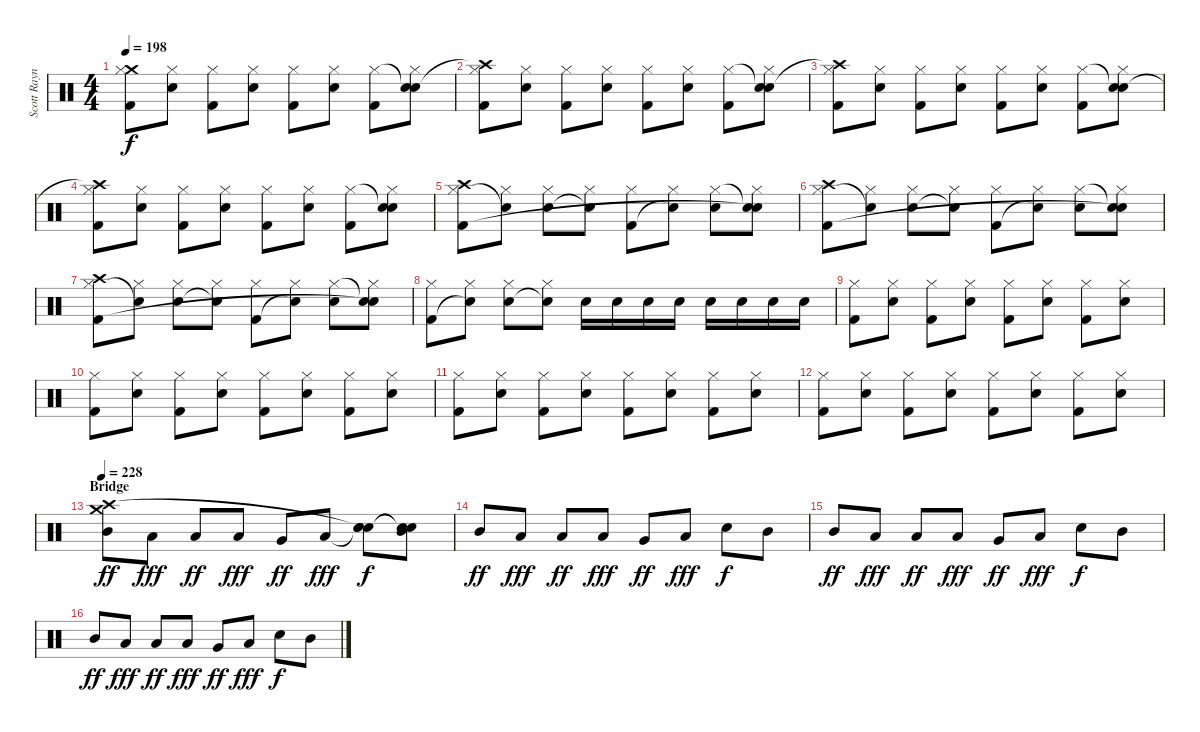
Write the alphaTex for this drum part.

\track ("Scott Raynor Drums" "Scott Rayn") {instrument percussion}
\staff {score}
\articulation defaults
\ts (4 4)
\tempo 198
\clef neutral
\ks c
("Crash medium (hit)" "Hi-Hat (closed)" "Kick (hit) 2").8{dy f} ("Hi-Hat (closed)" "Electric Snare (hit)").8 ("Hi-Hat (closed)" "Kick (hit) 2").8 ("Hi-Hat (closed)" "Electric Snare (hit)").8 ("Hi-Hat (closed)" "Kick (hit) 2").8 ("Hi-Hat (closed)" "Electric Snare (hit)").8 ("Hi-Hat (closed)" "Kick (hit) 2").8 ("Snare (hit)"{t} "Hi-Hat (closed)" "Electric Snare (hit)").8 |
("Crash high (hit)"{t} "Hi-Hat (closed)" "Kick (hit) 2").8 ("Hi-Hat (closed)" "Electric Snare (hit)").8 ("Hi-Hat (closed)" "Kick (hit) 2").8 ("Hi-Hat (closed)" "Electric Snare (hit)").8 ("Hi-Hat (closed)" "Kick (hit) 2").8 ("Hi-Hat (closed)" "Electric Snare (hit)").8 ("Hi-Hat (closed)" "Kick (hit) 2").8 ("Snare (hit)"{t} "Hi-Hat (closed)" "Electric Snare (hit)").8 |
("Crash high (hit)"{t} "Hi-Hat (closed)" "Kick (hit) 2").8 ("Hi-Hat (closed)" "Electric Snare (hit)").8 ("Hi-Hat (closed)" "Kick (hit) 2").8 ("Hi-Hat (closed)" "Electric Snare (hit)").8 ("Hi-Hat (closed)" "Kick (hit) 2").8 ("Hi-Hat (closed)" "Electric Snare (hit)").8 ("Hi-Hat (closed)" "Kick (hit) 2").8 ("Snare (hit)"{t} "Hi-Hat (closed)" "Electric Snare (hit)").8 |
("Crash high (hit)"{t} "Hi-Hat (closed)" "Kick (hit) 2").8 ("Hi-Hat (closed)" "Electric Snare (hit)").8 ("Hi-Hat (closed)" "Kick (hit) 2").8 ("Hi-Hat (closed)" "Electric Snare (hit)").8 ("Hi-Hat (closed)" "Kick (hit) 2").8 ("Hi-Hat (closed)" "Electric Snare (hit)").8 ("Hi-Hat (closed)" "Kick (hit) 2").8 ("Snare (hit)"{t} "Hi-Hat (closed)" "Electric Snare (hit)").8 |
("Crash high (hit)" "Hi-Hat (closed)" "Kick (hit) 2").8 ("Hi-Hat (closed)" "Snare (hit)"{t}).8 ("Hi-Hat (closed)" "Electric Snare (hit)").8 ("Hi-Hat (closed)" "Snare (hit)"{t}).8 ("Hi-Hat (closed)" "Kick (hit) 2").8 ("Hi-Hat (closed)" "Snare (hit)"{t}).8 ("Hi-Hat (closed)" "Electric Snare (hit)").8 ("Snare (hit)"{t} "Hi-Hat (closed)" "Snare (hit)"{t}).8 |
("Crash high (hit)" "Hi-Hat (closed)" "Kick (hit) 2").8 ("Hi-Hat (closed)" "Snare (hit)"{t}).8 ("Hi-Hat (closed)" "Electric Snare (hit)").8 ("Hi-Hat (closed)" "Snare (hit)"{t}).8 ("Hi-Hat (closed)" "Kick (hit) 2").8 ("Hi-Hat (closed)" "Snare (hit)"{t}).8 ("Hi-Hat (closed)" "Electric Snare (hit)").8 ("Snare (hit)"{t} "Hi-Hat (closed)" "Snare (hit)"{t}).8 |
("Crash high (hit)" "Hi-Hat (closed)" "Kick (hit) 2").8 ("Hi-Hat (closed)" "Snare (hit)"{t}).8 ("Hi-Hat (closed)" "Electric Snare (hit)").8 ("Hi-Hat (closed)" "Snare (hit)"{t}).8 ("Hi-Hat (closed)" "Kick (hit) 2").8 ("Hi-Hat (closed)" "Snare (hit)"{t}).8 ("Hi-Hat (closed)" "Electric Snare (hit)").8 ("Snare (hit)"{t} "Hi-Hat (closed)" "Snare (hit)"{t}).8 |
("Hi-Hat (closed)" "Kick (hit) 2").8 ("Hi-Hat (closed)" "Snare (hit)"{t}).8 ("Hi-Hat (closed)" "Electric Snare (hit)").8 ("Hi-Hat (closed)" "Snare (hit)"{t}).8 "Electric Snare (hit)".16 "Electric Snare (hit)".16 "Electric Snare (hit)".16 "Electric Snare (hit)".16 "Electric Snare (hit)".16 "Electric Snare (hit)".16 "Electric Snare (hit)".16 "Electric Snare (hit)".16 |
("Hi-Hat (closed)" "Kick (hit) 2").8 ("Hi-Hat (closed)" "Electric Snare (hit)").8 ("Hi-Hat (closed)" "Kick (hit) 2").8 ("Hi-Hat (closed)" "Electric Snare (hit)").8 ("Hi-Hat (closed)" "Kick (hit) 2").8 ("Hi-Hat (closed)" "Electric Snare (hit)").8 ("Hi-Hat (closed)" "Kick (hit) 2").8 ("Hi-Hat (closed)" "Electric Snare (hit)").8 |
("Hi-Hat (closed)" "Kick (hit) 2").8 ("Hi-Hat (closed)" "Electric Snare (hit)").8 ("Hi-Hat (closed)" "Kick (hit) 2").8 ("Hi-Hat (closed)" "Electric Snare (hit)").8 ("Hi-Hat (closed)" "Kick (hit) 2").8 ("Hi-Hat (closed)" "Electric Snare (hit)").8 ("Hi-Hat (closed)" "Kick (hit) 2").8 ("Hi-Hat (closed)" "Electric Snare (hit)").8 |
("Hi-Hat (closed)" "Kick (hit) 2").8 ("Hi-Hat (closed)" "Electric Snare (hit)").8 ("Hi-Hat (closed)" "Kick (hit) 2").8 ("Hi-Hat (closed)" "Electric Snare (hit)").8 ("Hi-Hat (closed)" "Kick (hit) 2").8 ("Hi-Hat (closed)" "Electric Snare (hit)").8 ("Hi-Hat (closed)" "Kick (hit) 2").8 ("Hi-Hat (closed)" "Electric Snare (hit)").8 |
("Hi-Hat (closed)" "Kick (hit) 2").8 ("Hi-Hat (closed)" "Electric Snare (hit)").8 ("Hi-Hat (closed)" "Kick (hit) 2").8 ("Hi-Hat (closed)" "Electric Snare (hit)").8 ("Hi-Hat (closed)" "Kick (hit) 2").8 ("Hi-Hat (closed)" "Electric Snare (hit)").8 ("Hi-Hat (closed)" "Kick (hit) 2").8 ("Hi-Hat (closed)" "Electric Snare (hit)").8 |
\section ("" "Bridge")
\tempo 228
("Crash medium (hit)" "Crash high (hit)" "Mid Tom (hit)").8{dy ff} "Low Floor Tom (hit)".8{dy fff} "Low Tom (hit)".8{dy ff} "Low Floor Tom (hit)".8{dy fff} "Very Low Tom (hit)".8{dy ff} "Low Floor Tom (hit)".8{dy fff} ("Snare (hit)"{t} "Snare (hit)"{t} "Snare (hit) 2").8{dy f} ("Snare (hit)"{t} "Snare (hit)"{t} "Mid Tom (hit)").8 |
"Mid Tom (hit)".8{dy ff} "Low Floor Tom (hit)".8{dy fff} "Low Tom (hit)".8{dy ff} "Low Floor Tom (hit)".8{dy fff} "Very Low Tom (hit)".8{dy ff} "Low Floor Tom (hit)".8{dy fff} "Snare (hit) 2".8{dy f} "Mid Tom (hit)".8 |
"Mid Tom (hit)".8{dy ff} "Low Floor Tom (hit)".8{dy fff} "Low Tom (hit)".8{dy ff} "Low Floor Tom (hit)".8{dy fff} "Very Low Tom (hit)".8{dy ff} "Low Floor Tom (hit)".8{dy fff} "Snare (hit) 2".8{dy f} "Mid Tom (hit)".8 |
"Mid Tom (hit)".8{dy ff} "Low Floor Tom (hit)".8{dy fff} "Low Tom (hit)".8{dy ff} "Low Floor Tom (hit)".8{dy fff} "Very Low Tom (hit)".8{dy ff} "Low Floor Tom (hit)".8{dy fff} "Snare (hit) 2".8{dy f} "Mid Tom (hit)".8
